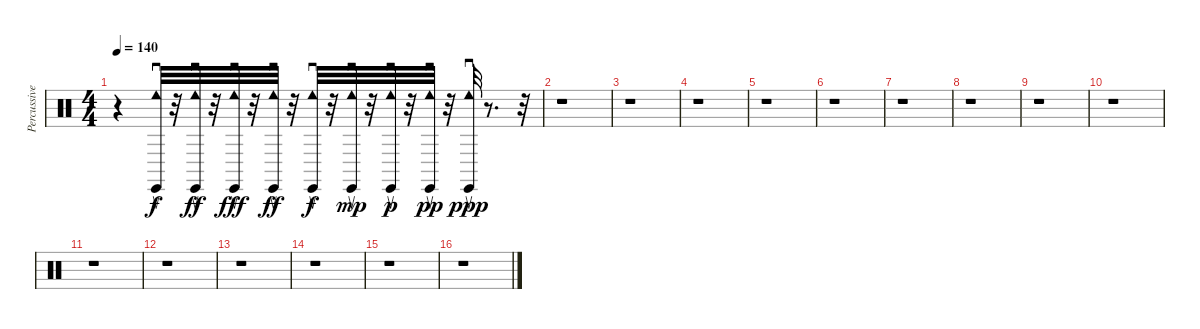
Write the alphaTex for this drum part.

\track ("Percussive Organ" "Percussive") {instrument percussion}
\staff {score}
\articulation defaults
\ts (4 4)
\tempo 140
\clef neutral
\ks c
r.4{dy ppp} ("Cabasa (return)" "Tambourine (roll)").32{dy f} r.32 ("Tambourine (roll)" "Cabasa (return)").32{dy ff} r.32 ("Tambourine (roll)" "Cabasa (return)").32{dy fff} r.32 ("Tambourine (roll)" "Cabasa (return)").32{dy ff} r.32 ("Tambourine (roll)" "Cabasa (return)").32{dy f} r.32 ("Tambourine (roll)" "Cabasa (return)").32{dy mp} r.32 ("Tambourine (roll)" "Cabasa (return)").32{dy p} r.32 ("Tambourine (roll)" "Cabasa (return)").32{dy pp} r.32 ("Cabasa (return)" "Tambourine (roll)").32{dy ppp} r.8{d} r.32 |
r.1 |
r.1 |
r.1 |
r.1 |
r.1 |
r.1 |
r.1 |
r.1 |
r.1 |
r.1 |
r.1 |
r.1 |
r.1 |
r.1 |
r.1
